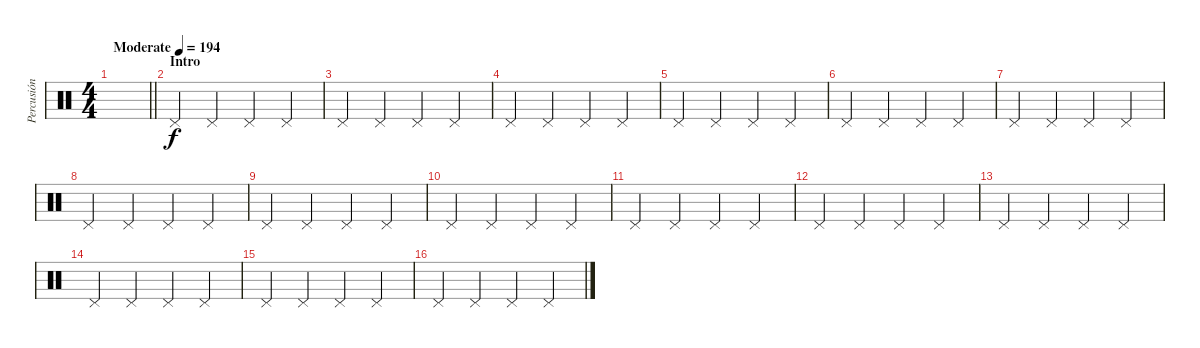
\track ("Percusión" "Percusión") {instrument percussion}
\staff {score}
\articulation defaults
\ts (4 4)
\tempo (194 "Moderate")
\clef neutral
\barLineRight lightlight
\ks c
|
\section ("" "Intro")
"Pedal Hi-Hat (hit)".4 "Pedal Hi-Hat (hit)".4 "Pedal Hi-Hat (hit)".4 "Pedal Hi-Hat (hit)".4 |
"Pedal Hi-Hat (hit)".4 "Pedal Hi-Hat (hit)".4 "Pedal Hi-Hat (hit)".4 "Pedal Hi-Hat (hit)".4 |
"Pedal Hi-Hat (hit)".4 "Pedal Hi-Hat (hit)".4 "Pedal Hi-Hat (hit)".4 "Pedal Hi-Hat (hit)".4 |
"Pedal Hi-Hat (hit)".4 "Pedal Hi-Hat (hit)".4 "Pedal Hi-Hat (hit)".4 "Pedal Hi-Hat (hit)".4 |
"Pedal Hi-Hat (hit)".4 "Pedal Hi-Hat (hit)".4 "Pedal Hi-Hat (hit)".4 "Pedal Hi-Hat (hit)".4 |
"Pedal Hi-Hat (hit)".4 "Pedal Hi-Hat (hit)".4 "Pedal Hi-Hat (hit)".4 "Pedal Hi-Hat (hit)".4 |
"Pedal Hi-Hat (hit)".4 "Pedal Hi-Hat (hit)".4 "Pedal Hi-Hat (hit)".4 "Pedal Hi-Hat (hit)".4 |
"Pedal Hi-Hat (hit)".4 "Pedal Hi-Hat (hit)".4 "Pedal Hi-Hat (hit)".4 "Pedal Hi-Hat (hit)".4 |
"Pedal Hi-Hat (hit)".4 "Pedal Hi-Hat (hit)".4 "Pedal Hi-Hat (hit)".4 "Pedal Hi-Hat (hit)".4 |
"Pedal Hi-Hat (hit)".4 "Pedal Hi-Hat (hit)".4 "Pedal Hi-Hat (hit)".4 "Pedal Hi-Hat (hit)".4 |
"Pedal Hi-Hat (hit)".4 "Pedal Hi-Hat (hit)".4 "Pedal Hi-Hat (hit)".4 "Pedal Hi-Hat (hit)".4 |
"Pedal Hi-Hat (hit)".4 "Pedal Hi-Hat (hit)".4 "Pedal Hi-Hat (hit)".4 "Pedal Hi-Hat (hit)".4 |
"Pedal Hi-Hat (hit)".4 "Pedal Hi-Hat (hit)".4 "Pedal Hi-Hat (hit)".4 "Pedal Hi-Hat (hit)".4 |
"Pedal Hi-Hat (hit)".4 "Pedal Hi-Hat (hit)".4 "Pedal Hi-Hat (hit)".4 "Pedal Hi-Hat (hit)".4 |
"Pedal Hi-Hat (hit)".4 "Pedal Hi-Hat (hit)".4 "Pedal Hi-Hat (hit)".4 "Pedal Hi-Hat (hit)".4
